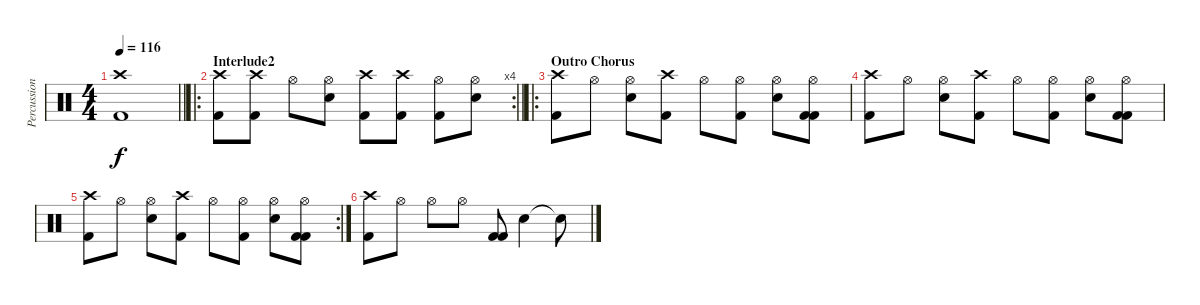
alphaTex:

\track ("Percussioni" "Percussion") {instrument percussion}
\staff {score}
\articulation defaults
\ts (4 4)
\tempo 116
\clef neutral
\barLineRight lightlight
\ks c
("Crash high (hit)" "Kick (hit) 2").1{dy f} |
\ro
\rc 4
\section ("" "Interlude2")
\barLineRight lightlight
("Crash high (hit)" "Kick (hit) 2").8 ("Crash high (hit)" "Kick (hit) 2").8 "Hi-Hat (open)".8 ("Hi-Hat (open)" "Electric Snare (hit)").8 ("Crash high (hit)" "Kick (hit) 2").8 ("Crash high (hit)" "Kick (hit) 2").8 ("Hi-Hat (open)" "Kick (hit) 2").8 ("Hi-Hat (open)" "Electric Snare (hit)").8 |
\ro
\section ("" "Outro Chorus")
("Crash high (hit)" "Kick (hit) 2").8 "Hi-Hat (open)".8 ("Hi-Hat (open)" "Electric Snare (hit)").8 ("Crash high (hit)" "Kick (hit) 2").8 "Hi-Hat (open)".8 ("Hi-Hat (open)" "Kick (hit) 2").8 ("Hi-Hat (open)" "Electric Snare (hit)").8 ("Hi-Hat (open)" "Kick (hit) 2" "Kick (hit) 2").8 |
("Crash high (hit)" "Kick (hit) 2").8 "Hi-Hat (open)".8 ("Hi-Hat (open)" "Electric Snare (hit)").8 ("Crash high (hit)" "Kick (hit) 2").8 "Hi-Hat (open)".8 ("Hi-Hat (open)" "Kick (hit) 2").8 ("Hi-Hat (open)" "Electric Snare (hit)").8 ("Hi-Hat (open)" "Kick (hit) 2" "Kick (hit) 2").8 |
\rc 2
("Crash high (hit)" "Kick (hit) 2").8 "Hi-Hat (open)".8 ("Hi-Hat (open)" "Electric Snare (hit)").8 ("Crash high (hit)" "Kick (hit) 2").8 "Hi-Hat (open)".8 ("Hi-Hat (open)" "Kick (hit) 2").8 ("Hi-Hat (open)" "Electric Snare (hit)").8 ("Hi-Hat (open)" "Kick (hit) 2" "Kick (hit) 2").8 |
("Crash high (hit)" "Kick (hit) 2").8 "Hi-Hat (open)".8 "Hi-Hat (open)".8 "Hi-Hat (open)".8 ("Kick (hit) 2" "Kick (hit) 2").8 "Electric Snare (hit)".4 "Snare (hit)"{t}.8
